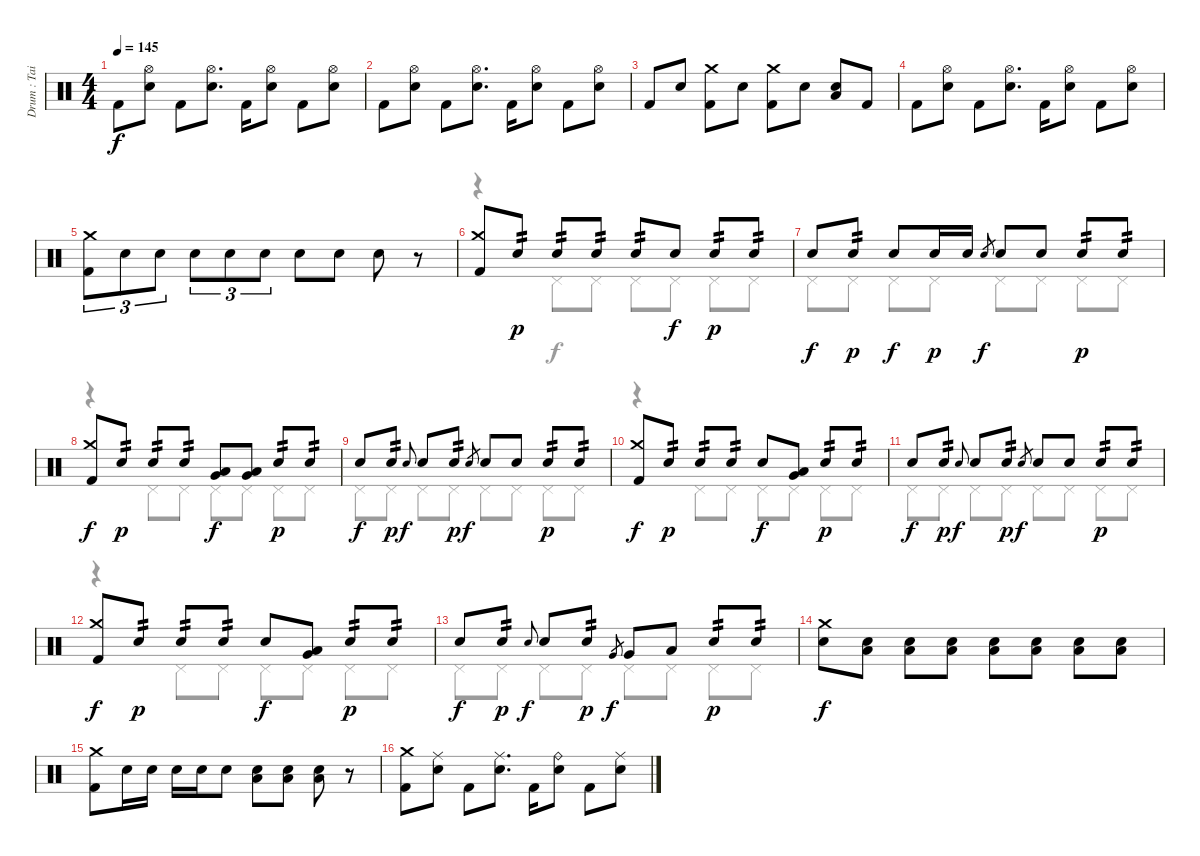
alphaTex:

\track ("Drum : Tainaka Ritsu" "Drum : Tai") {instrument percussion}
\staff {score}
\articulation defaults
\voice
\ts (4 4)
\tempo 145
\clef neutral
\ks c "Kick (hit) 2".8{dy f}
("Hi-Hat (open)" "Electric Snare (hit)").8 "Kick (hit) 2".8 ("Hi-Hat (open)" "Electric Snare (hit)").8{d} "Kick (hit) 2".16 ("Hi-Hat (open)" "Electric Snare (hit)").8 "Kick (hit) 2".8 ("Hi-Hat (open)" "Electric Snare (hit)").8 |
"Kick (hit) 2".8 ("Hi-Hat (open)" "Electric Snare (hit)").8 "Kick (hit) 2".8 ("Hi-Hat (open)" "Electric Snare (hit)").8{d} "Kick (hit) 2".16 ("Hi-Hat (open)" "Electric Snare (hit)").8 "Kick (hit) 2".8 ("Hi-Hat (open)" "Electric Snare (hit)").8 |
"Kick (hit) 2".8 "Electric Snare (hit)".8 ("Crash medium (hit)" "Kick (hit) 2").8 "Electric Snare (hit)".8 ("Crash medium (hit)" "Kick (hit) 2").8 "Electric Snare (hit)".8 ("Low Floor Tom (hit)" "Electric Snare (hit)").8 "Kick (hit) 2".8 |
"Kick (hit) 2".8 ("Hi-Hat (open)" "Electric Snare (hit)").8 "Kick (hit) 2".8 ("Hi-Hat (open)" "Electric Snare (hit)").8{d} "Kick (hit) 2".16 ("Hi-Hat (open)" "Electric Snare (hit)").8 "Kick (hit) 2".8 ("Hi-Hat (open)" "Electric Snare (hit)").8 |
("Crash medium (hit)" "Kick (hit) 2").8{tu (3 2)} "Electric Snare (hit)".8{tu (3 2)} "Electric Snare (hit)".8{tu (3 2)} "Electric Snare (hit)".8{tu (3 2)} "Electric Snare (hit)".8{tu (3 2)} "Electric Snare (hit)".8{tu (3 2)} "Electric Snare (hit)".8 "Electric Snare (hit)".8 "Electric Snare (hit)".8 r.8 |
("Crash medium (hit)" "Kick (hit) 2").8 "Electric Snare (hit)".8{tp 2 dy p} "Electric Snare (hit)".8{tp 2} "Electric Snare (hit)".8{tp 2} "Electric Snare (hit)".8{tp 2} "Electric Snare (hit)".8{dy f} "Electric Snare (hit)".8{tp 2 dy p} "Electric Snare (hit)".8{tp 2} |
"Electric Snare (hit)".8{dy f} "Electric Snare (hit)".8{tp 2 dy p} "Electric Snare (hit)".8{dy f} "Electric Snare (hit)".16{dy p} "Electric Snare (hit)".16 "Electric Snare (hit)".8{gr dy f} "Electric Snare (hit)".8 "Electric Snare (hit)".8 "Electric Snare (hit)".8{tp 2 dy p} "Electric Snare (hit)".8{tp 2} |
("Crash medium (hit)" "Kick (hit) 2").8{dy f} "Electric Snare (hit)".8{tp 2 dy p} "Electric Snare (hit)".8{tp 2} "Electric Snare (hit)".8{tp 2} ("Low Tom (hit)" "Very Low Tom (hit)").8{dy f} ("Very Low Tom (hit)" "Low Floor Tom (hit)").8 "Electric Snare (hit)".8{tp 2 dy p} "Electric Snare (hit)".8{tp 2} |
"Electric Snare (hit)".8{dy f} "Electric Snare (hit)".8{tp 2 dy p} "Electric Snare (hit)".8{gr onbeat dy f} "Electric Snare (hit)".8 "Electric Snare (hit)".8{tp 2 dy p} "Electric Snare (hit)".8{gr dy f} "Electric Snare (hit)".8 "Electric Snare (hit)".8 "Electric Snare (hit)".8{tp 2 dy p} "Electric Snare (hit)".8{tp 2} |
("Crash medium (hit)" "Kick (hit) 2").8{dy f} "Electric Snare (hit)".8{tp 2 dy p} "Electric Snare (hit)".8{tp 2} "Electric Snare (hit)".8{tp 2} "Electric Snare (hit)".8{dy f} ("Low Tom (hit)" "Very Low Tom (hit)").8 "Electric Snare (hit)".8{tp 2 dy p} "Electric Snare (hit)".8{tp 2} |
"Electric Snare (hit)".8{dy f} "Electric Snare (hit)".8{tp 2 dy p} "Electric Snare (hit)".8{gr onbeat dy f} "Electric Snare (hit)".8 "Electric Snare (hit)".8{tp 2 dy p} "Electric Snare (hit)".8{gr dy f} "Electric Snare (hit)".8 "Electric Snare (hit)".8 "Electric Snare (hit)".8{tp 2 dy p} "Electric Snare (hit)".8{tp 2} |
("Crash medium (hit)" "Kick (hit) 2").8{dy f} "Electric Snare (hit)".8{tp 2 dy p} "Electric Snare (hit)".8{tp 2} "Electric Snare (hit)".8{tp 2} "Electric Snare (hit)".8{dy f} ("Low Tom (hit)" "Very Low Tom (hit)").8 "Electric Snare (hit)".8{tp 2 dy p} "Electric Snare (hit)".8{tp 2} |
"Electric Snare (hit)".8{dy f} "Electric Snare (hit)".8{tp 2 dy p} "Electric Snare (hit)".8{gr onbeat dy f} "Electric Snare (hit)".8 "Electric Snare (hit)".8{tp 2 dy p} "Very Low Tom (hit)".8{gr dy f} "Very Low Tom (hit)".8 "Low Floor Tom (hit)".8 "Electric Snare (hit)".8{tp 2 dy p} "Electric Snare (hit)".8{tp 2} |
("Crash medium (hit)" "Electric Snare (hit)").8{dy f} ("Low Floor Tom (hit)" "Electric Snare (hit)").8 ("Low Floor Tom (hit)" "Electric Snare (hit)").8 ("Low Floor Tom (hit)" "Electric Snare (hit)").8 ("Low Floor Tom (hit)" "Electric Snare (hit)").8 ("Low Floor Tom (hit)" "Electric Snare (hit)").8 ("Low Floor Tom (hit)" "Electric Snare (hit)").8 ("Low Floor Tom (hit)" "Electric Snare (hit)").8 |
("Crash medium (hit)" "Kick (hit) 2").8 "Electric Snare (hit)".16 "Electric Snare (hit)".16 "Electric Snare (hit)".16 "Electric Snare (hit)".16 "Electric Snare (hit)".8 ("Low Floor Tom (hit)" "Electric Snare (hit)").8 ("Low Floor Tom (hit)" "Electric Snare (hit)").8 ("Low Floor Tom (hit)" "Electric Snare (hit)").8 r.8 |
("Crash medium (hit)" "Kick (hit) 2").8 ("Ride (middle)" "Electric Snare (hit)").8 "Kick (hit) 2".8 ("Ride (middle)" "Electric Snare (hit)").8{d} "Kick (hit) 2".16 ("Ride (bell)" "Electric Snare (hit)").8 "Kick (hit) 2".8 ("Ride (middle)" "Electric Snare (hit)").8
\voice
\clef neutral
\ottava regular
\simile none
\ks c
|
|
|
|
|
r.4 "Pedal Hi-Hat (hit)".8 "Pedal Hi-Hat (hit)".8 "Pedal Hi-Hat (hit)".8 "Pedal Hi-Hat (hit)".8 "Pedal Hi-Hat (hit)".8 "Pedal Hi-Hat (hit)".8 |
"Pedal Hi-Hat (hit)".8 "Pedal Hi-Hat (hit)".8 "Pedal Hi-Hat (hit)".8 "Pedal Hi-Hat (hit)".8 "Pedal Hi-Hat (hit)".8 "Pedal Hi-Hat (hit)".8 "Pedal Hi-Hat (hit)".8 "Pedal Hi-Hat (hit)".8 |
r.4 "Pedal Hi-Hat (hit)".8 "Pedal Hi-Hat (hit)".8 "Pedal Hi-Hat (hit)".8 "Pedal Hi-Hat (hit)".8 "Pedal Hi-Hat (hit)".8 "Pedal Hi-Hat (hit)".8 |
"Pedal Hi-Hat (hit)".8 "Pedal Hi-Hat (hit)".8 "Pedal Hi-Hat (hit)".8 "Pedal Hi-Hat (hit)".8 "Pedal Hi-Hat (hit)".8 "Pedal Hi-Hat (hit)".8 "Pedal Hi-Hat (hit)".8 "Pedal Hi-Hat (hit)".8 |
r.4 "Pedal Hi-Hat (hit)".8 "Pedal Hi-Hat (hit)".8 "Pedal Hi-Hat (hit)".8 "Pedal Hi-Hat (hit)".8 "Pedal Hi-Hat (hit)".8 "Pedal Hi-Hat (hit)".8 |
"Pedal Hi-Hat (hit)".8 "Pedal Hi-Hat (hit)".8 "Pedal Hi-Hat (hit)".8 "Pedal Hi-Hat (hit)".8 "Pedal Hi-Hat (hit)".8 "Pedal Hi-Hat (hit)".8 "Pedal Hi-Hat (hit)".8 "Pedal Hi-Hat (hit)".8 |
r.4 "Pedal Hi-Hat (hit)".8 "Pedal Hi-Hat (hit)".8 "Pedal Hi-Hat (hit)".8 "Pedal Hi-Hat (hit)".8 "Pedal Hi-Hat (hit)".8 "Pedal Hi-Hat (hit)".8 |
"Pedal Hi-Hat (hit)".8 "Pedal Hi-Hat (hit)".8 "Pedal Hi-Hat (hit)".8 "Pedal Hi-Hat (hit)".8 "Pedal Hi-Hat (hit)".8 "Pedal Hi-Hat (hit)".8 "Pedal Hi-Hat (hit)".8 "Pedal Hi-Hat (hit)".8 |
|
|
